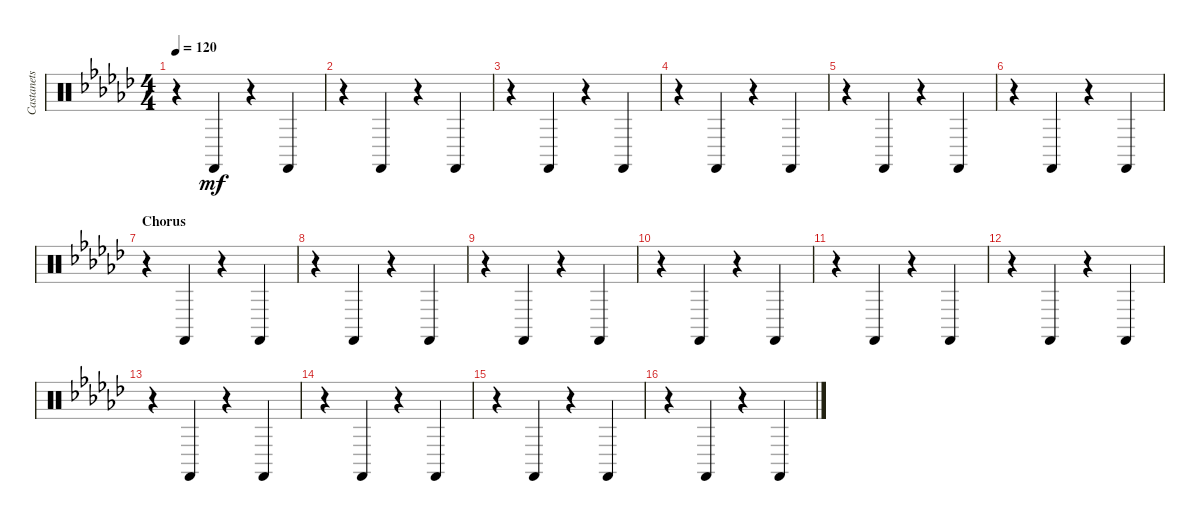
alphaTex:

\track ("Castanets" "Castanets") {instrument percussion}
\staff {score}
\articulation defaults
\ts (4 4)
\tempo 120
\clef neutral
\ks ebminor
r.4{dy mf} "Castanets (hit)".4 r.4 "Castanets (hit)".4 |
r.4 "Castanets (hit)".4 r.4 "Castanets (hit)".4 |
r.4 "Castanets (hit)".4 r.4 "Castanets (hit)".4 |
r.4 "Castanets (hit)".4 r.4 "Castanets (hit)".4 |
r.4 "Castanets (hit)".4 r.4 "Castanets (hit)".4 |
r.4 "Castanets (hit)".4 r.4 "Castanets (hit)".4 |
\section ("" "Chorus")
r.4 "Castanets (hit)".4 r.4 "Castanets (hit)".4 |
r.4 "Castanets (hit)".4 r.4 "Castanets (hit)".4 |
r.4 "Castanets (hit)".4 r.4 "Castanets (hit)".4 |
r.4 "Castanets (hit)".4 r.4 "Castanets (hit)".4 |
r.4 "Castanets (hit)".4 r.4 "Castanets (hit)".4 |
r.4 "Castanets (hit)".4 r.4 "Castanets (hit)".4 |
r.4 "Castanets (hit)".4 r.4 "Castanets (hit)".4 |
r.4 "Castanets (hit)".4 r.4 "Castanets (hit)".4 |
r.4 "Castanets (hit)".4 r.4 "Castanets (hit)".4 |
r.4 "Castanets (hit)".4 r.4 "Castanets (hit)".4
